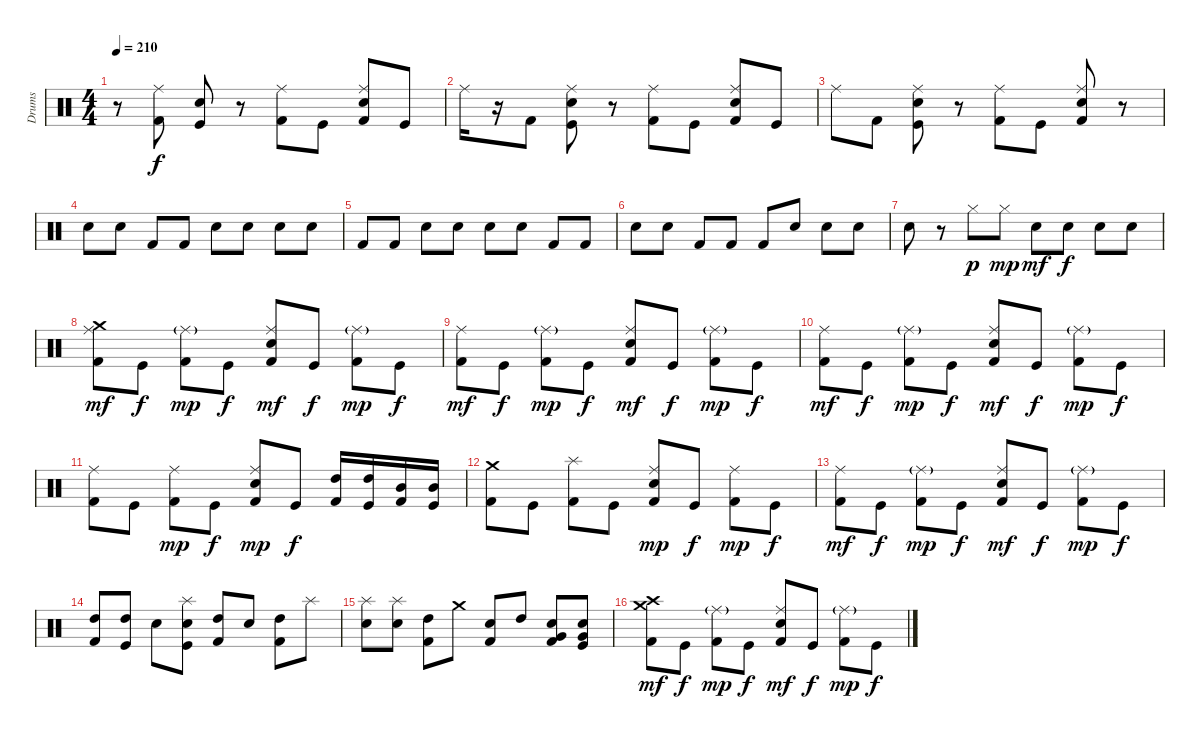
\track ("Drums" "Drums") {instrument percussion}
\staff {score}
\articulation defaults
\ts (4 4)
\tempo 210
\clef neutral
\ks c
r.8{dy f} ("Kick (hit) 2" "Ride (middle)").8 ("Kick (hit)" "Electric Snare (hit)").8 r.8 ("Kick (hit) 2" "Ride (middle)").8 "Kick (hit)".8 ("Kick (hit) 2" "Ride (middle)" "Electric Snare (hit)").8 "Kick (hit)".8 |
"Ride (middle)".16 r.16 "Kick (hit) 2".8 ("Kick (hit)" "Electric Snare (hit)" "Ride (middle)").8 r.8 ("Kick (hit) 2" "Ride (middle)").8 "Kick (hit)".8 ("Kick (hit) 2" "Electric Snare (hit)" "Ride (middle)").8 "Kick (hit)".8 |
"Ride (middle)".8 "Kick (hit) 2".8 ("Kick (hit)" "Electric Snare (hit)" "Ride (middle)").8 r.8 ("Kick (hit) 2" "Ride (middle)").8 "Kick (hit)".8 ("Kick (hit) 2" "Electric Snare (hit)" "Ride (middle)").8 r.8 |
"Electric Snare (hit)".8 "Electric Snare (hit)".8 "Kick (hit) 2".8 "Kick (hit) 2".8 "Electric Snare (hit)".8 "Electric Snare (hit)".8 "Electric Snare (hit)".8 "Electric Snare (hit)".8 |
"Kick (hit) 2".8 "Kick (hit) 2".8 "Electric Snare (hit)".8 "Electric Snare (hit)".8 "Electric Snare (hit)".8 "Electric Snare (hit)".8 "Kick (hit) 2".8 "Kick (hit) 2".8 |
"Electric Snare (hit)".8 "Electric Snare (hit)".8 "Kick (hit) 2".8 "Kick (hit) 2".8 "Kick (hit) 2".8 "Electric Snare (hit)".8 "Electric Snare (hit)".8 "Electric Snare (hit)".8 |
"Electric Snare (hit)".8 r.8 "Hi-Hat (closed)".8{dy p} "Hi-Hat (closed)".8{dy mp} "Electric Snare (hit)".8{dy mf} "Electric Snare (hit)".8{dy f} "Electric Snare (hit)".8 "Electric Snare (hit)".8 |
("Kick (hit) 2" "Crash medium (hit)" "Ride (middle)").8{dy mf} "Kick (hit)".8{dy f} ("Kick (hit) 2" "Ride (middle)"{g}).8{dy mp} "Kick (hit)".8{dy f} ("Kick (hit) 2" "Ride (middle)" "Electric Snare (hit)").8{dy mf} "Kick (hit)".8{dy f} ("Kick (hit) 2" "Ride (middle)"{g}).8{dy mp} "Kick (hit)".8{dy f} |
("Kick (hit) 2" "Ride (middle)").8{dy mf} "Kick (hit)".8{dy f} ("Kick (hit) 2" "Ride (middle)"{g}).8{dy mp} "Kick (hit)".8{dy f} ("Kick (hit) 2" "Ride (middle)" "Electric Snare (hit)").8{dy mf} "Kick (hit)".8{dy f} ("Kick (hit) 2" "Ride (middle)"{g}).8{dy mp} "Kick (hit)".8{dy f} |
("Kick (hit) 2" "Ride (middle)").8{dy mf} "Kick (hit)".8{dy f} ("Kick (hit) 2" "Ride (middle)"{g}).8{dy mp} "Kick (hit)".8{dy f} ("Kick (hit) 2" "Ride (middle)" "Electric Snare (hit)").8{dy mf} "Kick (hit)".8{dy f} ("Kick (hit) 2" "Ride (middle)"{g}).8{dy mp} "Kick (hit)".8{dy f} |
("Kick (hit) 2" "Ride (middle)").8 "Kick (hit)".8 ("Kick (hit) 2" "Ride (middle)").8{dy mp} "Kick (hit)".8{dy f} ("Kick (hit) 2" "Electric Snare (hit)" "Ride (middle)").8{dy mp} "Kick (hit)".8{dy f} ("Kick (hit) 2" "High Tom (hit)").16 ("Kick (hit)" "High Tom (hit)").16 ("Kick (hit) 2" "Mid Tom (hit)").16 ("Kick (hit)" "Mid Tom (hit)").16 |
("Kick (hit) 2" "Crash medium (hit)").8 "Kick (hit)".8 ("Kick (hit) 2" "Splash (hit)").8 "Kick (hit)".8 ("Kick (hit) 2" "Ride (middle)" "Electric Snare (hit)").8{dy mp} "Kick (hit)".8{dy f} ("Kick (hit) 2" "Ride (middle)").8{dy mp} "Kick (hit)".8{dy f} |
("Kick (hit) 2" "Ride (middle)").8{dy mf} "Kick (hit)".8{dy f} ("Kick (hit) 2" "Ride (middle)"{g}).8{dy mp} "Kick (hit)".8{dy f} ("Kick (hit) 2" "Ride (middle)" "Electric Snare (hit)").8{dy mf} "Kick (hit)".8{dy f} ("Kick (hit) 2" "Ride (middle)"{g}).8{dy mp} "Kick (hit)".8{dy f} |
("Kick (hit) 2" "High Tom (hit)").8 ("Kick (hit)" "High Tom (hit)").8 "Electric Snare (hit)".8 ("Kick (hit)" "Splash (hit)" "Electric Snare (hit)").8 ("Kick (hit) 2" "High Tom (hit)").8 "Electric Snare (hit)".8 ("Kick (hit) 2" "High Tom (hit)").8 "Splash (hit)".8 |
("Electric Snare (hit)" "Splash (hit)").8 ("Electric Snare (hit)" "Splash (hit)").8 ("Kick (hit) 2" "High Tom (hit)").8 "Crash medium (hit)".8 ("Kick (hit) 2" "Electric Snare (hit)").8 "High Tom (hit)".8 ("Kick (hit) 2" "Electric Snare (hit)" "Very Low Tom (hit)").8 ("Kick (hit)" "Electric Snare (hit)" "Very Low Tom (hit)").8 |
("Kick (hit) 2" "Crash medium (hit)" "Crash high (hit)").8{dy mf} "Kick (hit)".8{dy f} ("Kick (hit) 2" "Ride (middle)"{g}).8{dy mp} "Kick (hit)".8{dy f} ("Kick (hit) 2" "Ride (middle)" "Electric Snare (hit)").8{dy mf} "Kick (hit)".8{dy f} ("Kick (hit) 2" "Ride (middle)"{g}).8{dy mp} "Kick (hit)".8{dy f}
